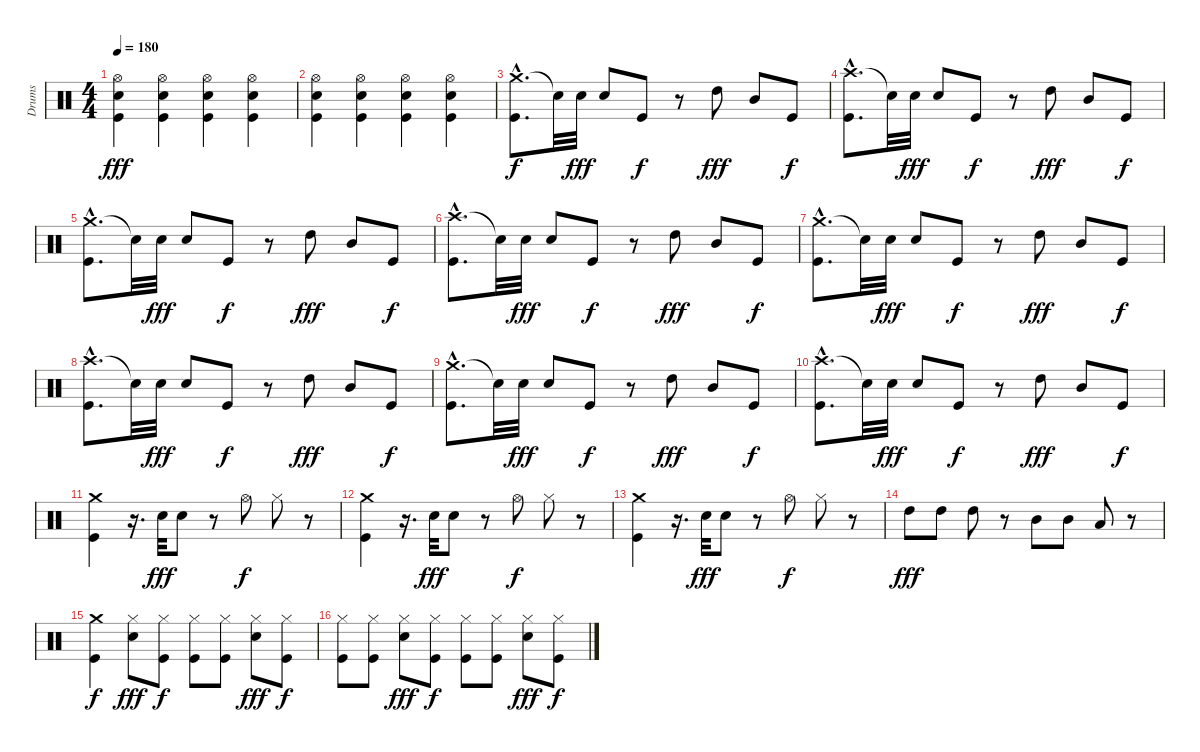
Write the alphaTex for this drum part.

\track ("Drums" "Drums") {instrument percussion}
\staff {score}
\articulation defaults
\ts (4 4)
\tempo 180
\clef neutral
\ks c
("Hi-Hat (open)" "Kick (hit)" "Snare (hit) 2").4{dy fff} ("Hi-Hat (open)" "Kick (hit)" "Snare (hit) 2").4 ("Hi-Hat (open)" "Kick (hit)" "Snare (hit) 2").4 ("Snare (hit) 2" "Kick (hit)" "Hi-Hat (open)").4 |
("Hi-Hat (open)" "Snare (hit) 2" "Kick (hit)").4 ("Hi-Hat (open)" "Snare (hit) 2" "Kick (hit)").4 ("Hi-Hat (open)" "Snare (hit) 2" "Kick (hit)").4 ("Hi-Hat (open)" "Snare (hit) 2" "Kick (hit)").4 |
("Crash medium (hit)"{hac} "Kick (hit)").8{d dy f} "Snare (hit)"{t}.32 "Snare (hit) 2".32{dy fff} "Snare (hit) 2".8 "Kick (hit)".8{dy f} r.8 "High Tom (hit)".8{dy fff} "Mid Tom (hit)".8 "Kick (hit)".8{dy f} |
("Crash high (hit)"{hac} "Kick (hit)").8{d} "Snare (hit)"{t}.32 "Snare (hit) 2".32{dy fff} "Snare (hit) 2".8 "Kick (hit)".8{dy f} r.8 "High Tom (hit)".8{dy fff} "Mid Tom (hit)".8 "Kick (hit)".8{dy f} |
("Crash medium (hit)"{hac} "Kick (hit)").8{d} "Snare (hit)"{t}.32 "Snare (hit) 2".32{dy fff} "Snare (hit) 2".8 "Kick (hit)".8{dy f} r.8 "High Tom (hit)".8{dy fff} "Mid Tom (hit)".8 "Kick (hit)".8{dy f} |
("Crash high (hit)"{hac} "Kick (hit)").8{d} "Snare (hit)"{t}.32 "Snare (hit) 2".32{dy fff} "Snare (hit) 2".8 "Kick (hit)".8{dy f} r.8 "High Tom (hit)".8{dy fff} "Mid Tom (hit)".8 "Kick (hit)".8{dy f} |
("Crash medium (hit)"{hac} "Kick (hit)").8{d} "Snare (hit)"{t}.32 "Snare (hit) 2".32{dy fff} "Snare (hit) 2".8 "Kick (hit)".8{dy f} r.8 "High Tom (hit)".8{dy fff} "Mid Tom (hit)".8 "Kick (hit)".8{dy f} |
("Crash high (hit)"{hac} "Kick (hit)").8{d} "Snare (hit)"{t}.32 "Snare (hit) 2".32{dy fff} "Snare (hit) 2".8 "Kick (hit)".8{dy f} r.8 "High Tom (hit)".8{dy fff} "Mid Tom (hit)".8 "Kick (hit)".8{dy f} |
("Crash medium (hit)"{hac} "Kick (hit)").8{d} "Snare (hit)"{t}.32 "Snare (hit) 2".32{dy fff} "Snare (hit) 2".8 "Kick (hit)".8{dy f} r.8 "High Tom (hit)".8{dy fff} "Mid Tom (hit)".8 "Kick (hit)".8{dy f} |
("Crash high (hit)"{hac} "Kick (hit)").8{d} "Snare (hit)"{t}.32 "Snare (hit) 2".32{dy fff} "Snare (hit) 2".8 "Kick (hit)".8{dy f} r.8 "High Tom (hit)".8{dy fff} "Mid Tom (hit)".8 "Kick (hit)".8{dy f} |
("Crash medium (hit)" "Kick (hit)").4 r.16{d} "Snare (hit) 2".32{dy fff} "Snare (hit) 2".8 r.8 "Hi-Hat (open)".8{dy f} "Hi-Hat (closed)".8 r.8 |
("Crash medium (hit)" "Kick (hit)").4 r.16{d} "Snare (hit) 2".32{dy fff} "Snare (hit) 2".8 r.8 "Hi-Hat (open)".8{dy f} "Hi-Hat (closed)".8 r.8 |
("Crash medium (hit)" "Kick (hit)").4 r.16{d} "Snare (hit) 2".32{dy fff} "Snare (hit) 2".8 r.8 "Hi-Hat (open)".8{dy f} "Hi-Hat (closed)".8 r.8 |
"High Tom (hit)".8{dy fff} "High Tom (hit)".8 "High Tom (hit)".8 r.8 "Mid Tom (hit)".8 "Mid Tom (hit)".8 "Low Tom (hit)".8 r.8 |
("Crash medium (hit)" "Kick (hit)").4{dy f} ("Hi-Hat (closed)" "Snare (hit) 2").8{dy fff} ("Hi-Hat (closed)" "Kick (hit)").8{dy f} ("Hi-Hat (closed)" "Kick (hit)").8 ("Hi-Hat (closed)" "Kick (hit)").8 ("Snare (hit) 2" "Hi-Hat (closed)").8{dy fff} ("Kick (hit)" "Hi-Hat (closed)").8{dy f} |
("Hi-Hat (closed)" "Kick (hit)").8 ("Hi-Hat (closed)" "Kick (hit)").8 ("Hi-Hat (closed)" "Snare (hit) 2").8{dy fff} ("Hi-Hat (closed)" "Kick (hit)").8{dy f} ("Hi-Hat (closed)" "Kick (hit)").8 ("Hi-Hat (closed)" "Kick (hit)").8 ("Snare (hit) 2" "Hi-Hat (closed)").8{dy fff} ("Kick (hit)" "Hi-Hat (closed)").8{dy f}
